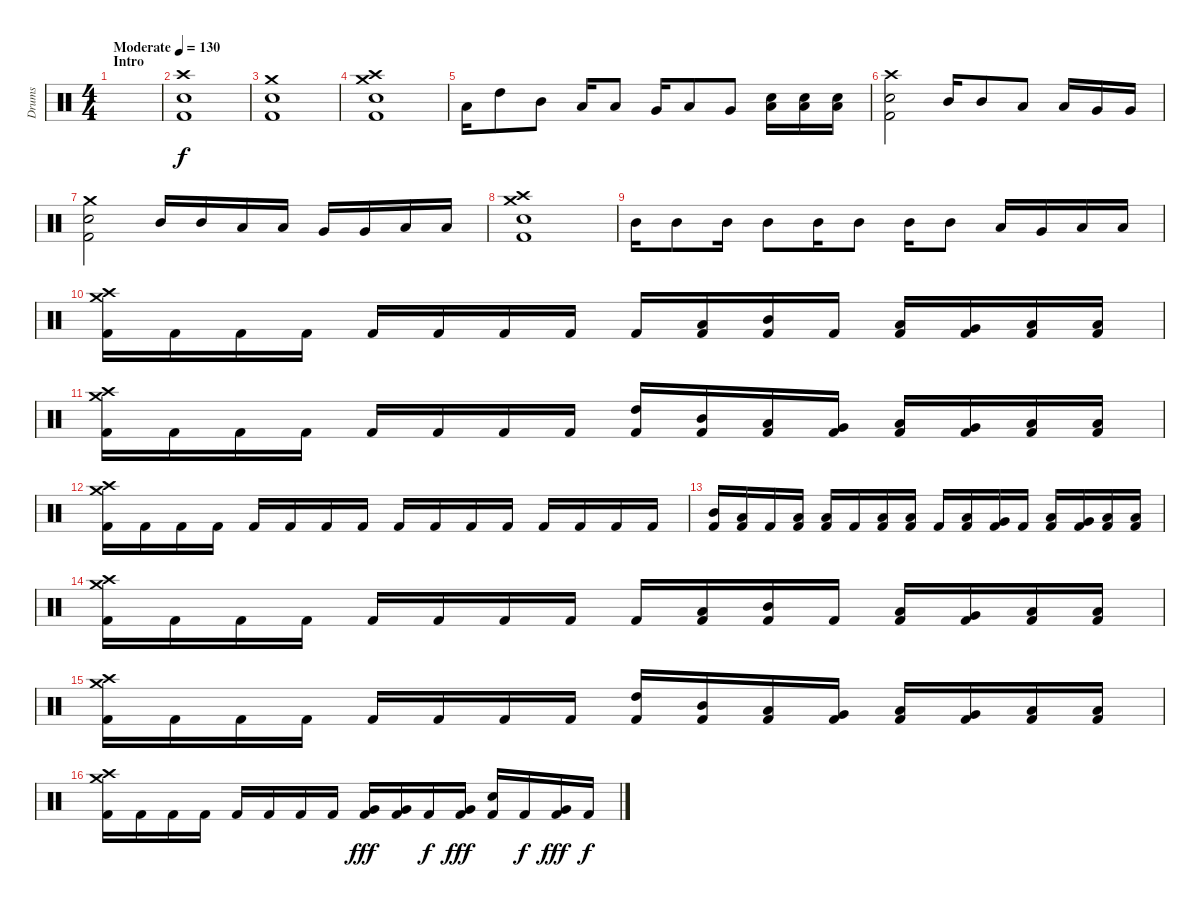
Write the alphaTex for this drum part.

\track ("Drums" "Drums") {instrument percussion}
\staff {score}
\articulation defaults
\ts (4 4)
\section ("" "Intro")
\tempo (130 "Moderate")
\clef neutral
\ks c
|
("Crash high (hit)" "Snare (hit) 2" "Kick (hit) 2").1 |
("Crash medium (hit)" "Snare (hit) 2" "Kick (hit) 2").1 |
("Crash high (hit)" "Crash medium (hit)" "Snare (hit) 2" "Kick (hit) 2").1 |
"Low Tom (hit)".16 "High Tom (hit)".8 "Mid Tom (hit)".8 "Low Tom (hit)".16 "Low Tom (hit)".8 "Very Low Tom (hit)".16 "Low Tom (hit)".8 "Very Low Tom (hit)".8 ("Low Floor Tom (hit)" "Electric Snare (hit)").16 ("Low Floor Tom (hit)" "Electric Snare (hit)").16 ("Low Floor Tom (hit)" "Electric Snare (hit)").16 |
("Crash high (hit)" "Snare (hit) 2" "Kick (hit) 2").2 "Mid Tom (hit)".16 "Mid Tom (hit)".8 "Low Tom (hit)".8 "Low Tom (hit)".16 "Very Low Tom (hit)".16 "Very Low Tom (hit)".16 |
("Crash medium (hit)" "Snare (hit) 2" "Kick (hit) 2").2 "Mid Tom (hit)".16 "Mid Tom (hit)".16 "Low Tom (hit)".16 "Low Tom (hit)".16 "Very Low Tom (hit)".16 "Very Low Tom (hit)".16 "Low Floor Tom (hit)".16 "Low Floor Tom (hit)".16 |
("Crash high (hit)" "Crash medium (hit)" "Snare (hit) 2" "Kick (hit) 2").1 |
"Mid Tom (hit)".16 "Mid Tom (hit)".8 "Mid Tom (hit)".16 "Mid Tom (hit)".8 "Mid Tom (hit)".16 "Mid Tom (hit)".8 "Mid Tom (hit)".16 "Mid Tom (hit)".8 "Low Tom (hit)".16 "Very Low Tom (hit)".16 "Low Floor Tom (hit)".16 "Low Floor Tom (hit)".16 |
("Crash high (hit)" "Crash medium (hit)" "Kick (hit) 2").16 "Kick (hit) 2".16 "Kick (hit) 2".16 "Kick (hit) 2".16 "Kick (hit) 2".16 "Kick (hit) 2".16 "Kick (hit) 2".16 "Kick (hit) 2".16 "Kick (hit) 2".16 ("Low Tom (hit)" "Kick (hit) 2").16 ("Mid Tom (hit)" "Kick (hit) 2").16 "Kick (hit) 2".16 ("Low Tom (hit)" "Kick (hit) 2").16 ("Very Low Tom (hit)" "Kick (hit) 2").16 ("Low Floor Tom (hit)" "Kick (hit) 2").16 ("Low Floor Tom (hit)" "Kick (hit) 2").16 |
("Crash high (hit)" "Crash medium (hit)" "Kick (hit) 2").16 "Kick (hit) 2".16 "Kick (hit) 2".16 "Kick (hit) 2".16 "Kick (hit) 2".16 "Kick (hit) 2".16 "Kick (hit) 2".16 "Kick (hit) 2".16 ("High Tom (hit)" "Kick (hit) 2").16 ("Mid Tom (hit)" "Kick (hit) 2").16 ("Low Tom (hit)" "Kick (hit) 2").16 ("Very Low Tom (hit)" "Kick (hit) 2").16 ("Low Tom (hit)" "Kick (hit) 2").16 ("Very Low Tom (hit)" "Kick (hit) 2").16 ("Low Floor Tom (hit)" "Kick (hit) 2").16 ("Low Floor Tom (hit)" "Kick (hit) 2").16 |
("Crash high (hit)" "Crash medium (hit)" "Kick (hit) 2").16 "Kick (hit) 2".16 "Kick (hit) 2".16 "Kick (hit) 2".16 "Kick (hit) 2".16 "Kick (hit) 2".16 "Kick (hit) 2".16 "Kick (hit) 2".16 "Kick (hit) 2".16 "Kick (hit) 2".16 "Kick (hit) 2".16 "Kick (hit) 2".16 "Kick (hit) 2".16 "Kick (hit) 2".16 "Kick (hit) 2".16 "Kick (hit) 2".16 |
("Mid Tom (hit)" "Kick (hit) 2").16 ("Low Tom (hit)" "Kick (hit) 2").16 "Kick (hit) 2".16 ("Low Tom (hit)" "Kick (hit) 2").16 ("Low Tom (hit)" "Kick (hit) 2").16 "Kick (hit) 2".16 ("Low Tom (hit)" "Kick (hit) 2").16 ("Low Tom (hit)" "Kick (hit) 2").16 "Kick (hit) 2".16 ("Low Tom (hit)" "Kick (hit) 2").16 ("Very Low Tom (hit)" "Kick (hit) 2").16 "Kick (hit) 2".16 ("Low Tom (hit)" "Kick (hit) 2").16 ("Very Low Tom (hit)" "Kick (hit) 2").16 ("Low Floor Tom (hit)" "Kick (hit) 2").16 ("Low Floor Tom (hit)" "Kick (hit) 2").16 |
("Crash high (hit)" "Crash medium (hit)" "Kick (hit) 2").16 "Kick (hit) 2".16 "Kick (hit) 2".16 "Kick (hit) 2".16 "Kick (hit) 2".16 "Kick (hit) 2".16 "Kick (hit) 2".16 "Kick (hit) 2".16 "Kick (hit) 2".16 ("Low Tom (hit)" "Kick (hit) 2").16 ("Mid Tom (hit)" "Kick (hit) 2").16 "Kick (hit) 2".16 ("Low Tom (hit)" "Kick (hit) 2").16 ("Very Low Tom (hit)" "Kick (hit) 2").16 ("Low Floor Tom (hit)" "Kick (hit) 2").16 ("Low Floor Tom (hit)" "Kick (hit) 2").16 |
("Crash high (hit)" "Crash medium (hit)" "Kick (hit) 2").16 "Kick (hit) 2".16 "Kick (hit) 2".16 "Kick (hit) 2".16 "Kick (hit) 2".16 "Kick (hit) 2".16 "Kick (hit) 2".16 "Kick (hit) 2".16 ("High Tom (hit)" "Kick (hit) 2").16 ("Mid Tom (hit)" "Kick (hit) 2").16 ("Low Tom (hit)" "Kick (hit) 2").16 ("Very Low Tom (hit)" "Kick (hit) 2").16 ("Low Tom (hit)" "Kick (hit) 2").16 ("Very Low Tom (hit)" "Kick (hit) 2").16 ("Low Floor Tom (hit)" "Kick (hit) 2").16 ("Low Floor Tom (hit)" "Kick (hit) 2").16 |
("Crash medium (hit)" "Crash high (hit)" "Kick (hit) 2").16 "Kick (hit) 2".16 "Kick (hit) 2".16 "Kick (hit) 2".16 "Kick (hit) 2".16 "Kick (hit) 2".16 "Kick (hit) 2".16 "Kick (hit) 2".16 ("Very Low Tom (hit)" "Kick (hit) 2").16{dy fff} ("Very Low Tom (hit)" "Kick (hit) 2").16 "Kick (hit) 2".16{dy f} ("Very Low Tom (hit)" "Kick (hit) 2").16{dy fff} ("Electric Snare (hit)" "Kick (hit) 2").16 "Kick (hit) 2".16{dy f} ("Very Low Tom (hit)" "Kick (hit) 2").16{dy fff} "Kick (hit) 2".16{dy f}
